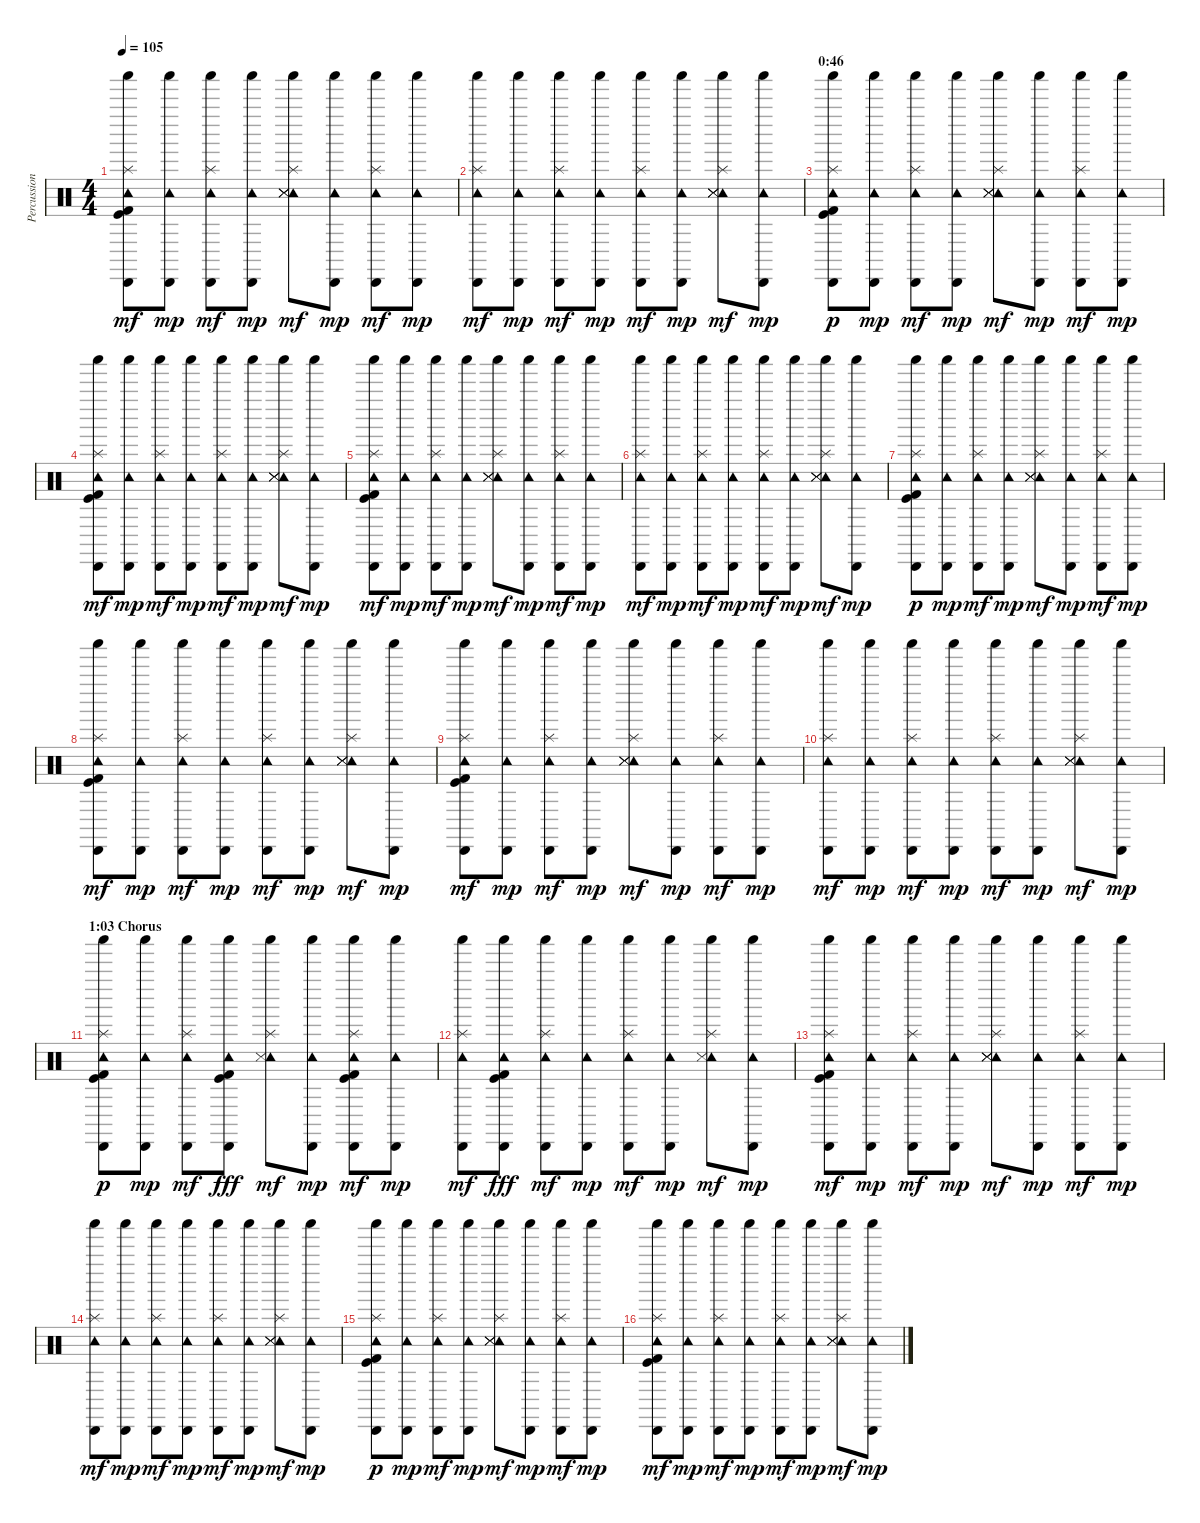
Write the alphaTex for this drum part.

\track ("Percussion (Ian Paice)" "Percussion") {instrument percussion}
\staff {score}
\articulation defaults
\ts (4 4)
\tempo 105
\clef neutral
\ks c
("Shaker (hit)" "Tambourine (hit)" "Cabasa (hit)" "Kick (hit)" "Kick (hit) 2" "Splash (hit)").8{dy mf} ("Shaker (hit)" "Tambourine (hit)" "Cabasa (hit)").8{dy mp} ("Shaker (hit)" "Tambourine (hit)" "Cabasa (hit)" "Splash (hit)").8{dy mf} ("Shaker (hit)" "Tambourine (hit)" "Cabasa (hit)").8{dy mp} ("Shaker (hit)" "Tambourine (hit)" "Snare (side stick) 3" "Snare (side stick) 3" "Snare (side stick) 3" "Splash (hit)").8{dy mf} ("Shaker (hit)" "Tambourine (hit)" "Cabasa (hit)").8{dy mp} ("Shaker (hit)" "Tambourine (hit)" "Cabasa (hit)" "Splash (hit)").8{dy mf} ("Shaker (hit)" "Tambourine (hit)" "Cabasa (hit)").8{dy mp} |
("Shaker (hit)" "Tambourine (hit)" "Cabasa (hit)" "Splash (hit)").8{dy mf} ("Shaker (hit)" "Tambourine (hit)" "Cabasa (hit)").8{dy mp} ("Shaker (hit)" "Tambourine (hit)" "Cabasa (hit)" "Splash (hit)").8{dy mf} ("Shaker (hit)" "Tambourine (hit)" "Cabasa (hit)").8{dy mp} ("Shaker (hit)" "Tambourine (hit)" "Cabasa (hit)" "Splash (hit)").8{dy mf} ("Shaker (hit)" "Tambourine (hit)" "Cabasa (hit)").8{dy mp} ("Shaker (hit)" "Tambourine (hit)" "Snare (side stick) 3" "Snare (side stick) 3" "Snare (side stick) 3" "Splash (hit)").8{dy mf} ("Shaker (hit)" "Tambourine (hit)" "Cabasa (hit)").8{dy mp} |
\section ("" "0:46")
("Shaker (hit)" "Tambourine (hit)" "Cabasa (hit)" "Kick (hit)" "Kick (hit) 2" "Splash (hit)").8{dy p} ("Shaker (hit)" "Tambourine (hit)" "Cabasa (hit)").8{dy mp} ("Shaker (hit)" "Tambourine (hit)" "Cabasa (hit)" "Splash (hit)").8{dy mf} ("Shaker (hit)" "Tambourine (hit)" "Cabasa (hit)").8{dy mp} ("Shaker (hit)" "Tambourine (hit)" "Snare (side stick) 3" "Snare (side stick) 3" "Snare (side stick) 3" "Splash (hit)").8{dy mf} ("Shaker (hit)" "Tambourine (hit)" "Cabasa (hit)").8{dy mp} ("Shaker (hit)" "Tambourine (hit)" "Cabasa (hit)" "Splash (hit)").8{dy mf} ("Shaker (hit)" "Tambourine (hit)" "Cabasa (hit)").8{dy mp} |
("Shaker (hit)" "Tambourine (hit)" "Cabasa (hit)" "Kick (hit)" "Kick (hit) 2" "Splash (hit)").8{dy mf} ("Shaker (hit)" "Tambourine (hit)" "Cabasa (hit)").8{dy mp} ("Shaker (hit)" "Tambourine (hit)" "Cabasa (hit)" "Splash (hit)").8{dy mf} ("Shaker (hit)" "Tambourine (hit)" "Cabasa (hit)").8{dy mp} ("Shaker (hit)" "Tambourine (hit)" "Cabasa (hit)" "Splash (hit)").8{dy mf} ("Shaker (hit)" "Tambourine (hit)" "Cabasa (hit)").8{dy mp} ("Shaker (hit)" "Tambourine (hit)" "Snare (side stick) 3" "Snare (side stick) 3" "Snare (side stick) 3" "Splash (hit)").8{dy mf} ("Shaker (hit)" "Tambourine (hit)" "Cabasa (hit)").8{dy mp} |
("Shaker (hit)" "Tambourine (hit)" "Cabasa (hit)" "Kick (hit)" "Kick (hit) 2" "Splash (hit)").8{dy mf} ("Shaker (hit)" "Tambourine (hit)" "Cabasa (hit)").8{dy mp} ("Shaker (hit)" "Tambourine (hit)" "Cabasa (hit)" "Splash (hit)").8{dy mf} ("Shaker (hit)" "Tambourine (hit)" "Cabasa (hit)").8{dy mp} ("Shaker (hit)" "Tambourine (hit)" "Snare (side stick) 3" "Snare (side stick) 3" "Snare (side stick) 3" "Splash (hit)").8{dy mf} ("Shaker (hit)" "Tambourine (hit)" "Cabasa (hit)").8{dy mp} ("Shaker (hit)" "Tambourine (hit)" "Cabasa (hit)" "Splash (hit)").8{dy mf} ("Shaker (hit)" "Tambourine (hit)" "Cabasa (hit)").8{dy mp} |
("Shaker (hit)" "Tambourine (hit)" "Cabasa (hit)" "Splash (hit)").8{dy mf} ("Shaker (hit)" "Tambourine (hit)" "Cabasa (hit)").8{dy mp} ("Shaker (hit)" "Tambourine (hit)" "Cabasa (hit)" "Splash (hit)").8{dy mf} ("Shaker (hit)" "Tambourine (hit)" "Cabasa (hit)").8{dy mp} ("Shaker (hit)" "Tambourine (hit)" "Cabasa (hit)" "Splash (hit)").8{dy mf} ("Shaker (hit)" "Tambourine (hit)" "Cabasa (hit)").8{dy mp} ("Shaker (hit)" "Tambourine (hit)" "Snare (side stick) 3" "Snare (side stick) 3" "Snare (side stick) 3" "Splash (hit)").8{dy mf} ("Shaker (hit)" "Tambourine (hit)" "Cabasa (hit)").8{dy mp} |
("Shaker (hit)" "Tambourine (hit)" "Cabasa (hit)" "Kick (hit)" "Kick (hit) 2" "Splash (hit)").8{dy p} ("Shaker (hit)" "Tambourine (hit)" "Cabasa (hit)").8{dy mp} ("Shaker (hit)" "Tambourine (hit)" "Cabasa (hit)" "Splash (hit)").8{dy mf} ("Shaker (hit)" "Tambourine (hit)" "Cabasa (hit)").8{dy mp} ("Shaker (hit)" "Tambourine (hit)" "Snare (side stick) 3" "Snare (side stick) 3" "Snare (side stick) 3" "Splash (hit)").8{dy mf} ("Shaker (hit)" "Tambourine (hit)" "Cabasa (hit)").8{dy mp} ("Shaker (hit)" "Tambourine (hit)" "Cabasa (hit)" "Splash (hit)").8{dy mf} ("Shaker (hit)" "Tambourine (hit)" "Cabasa (hit)").8{dy mp} |
("Shaker (hit)" "Tambourine (hit)" "Cabasa (hit)" "Kick (hit)" "Kick (hit) 2" "Splash (hit)").8{dy mf} ("Shaker (hit)" "Tambourine (hit)" "Cabasa (hit)").8{dy mp} ("Shaker (hit)" "Tambourine (hit)" "Cabasa (hit)" "Splash (hit)").8{dy mf} ("Shaker (hit)" "Tambourine (hit)" "Cabasa (hit)").8{dy mp} ("Shaker (hit)" "Tambourine (hit)" "Cabasa (hit)" "Splash (hit)").8{dy mf} ("Shaker (hit)" "Tambourine (hit)" "Cabasa (hit)").8{dy mp} ("Shaker (hit)" "Tambourine (hit)" "Snare (side stick) 3" "Snare (side stick) 3" "Snare (side stick) 3" "Splash (hit)").8{dy mf} ("Shaker (hit)" "Tambourine (hit)" "Cabasa (hit)").8{dy mp} |
("Shaker (hit)" "Tambourine (hit)" "Cabasa (hit)" "Kick (hit)" "Kick (hit) 2" "Splash (hit)").8{dy mf} ("Shaker (hit)" "Tambourine (hit)" "Cabasa (hit)").8{dy mp} ("Shaker (hit)" "Tambourine (hit)" "Cabasa (hit)" "Splash (hit)").8{dy mf} ("Shaker (hit)" "Tambourine (hit)" "Cabasa (hit)").8{dy mp} ("Shaker (hit)" "Tambourine (hit)" "Snare (side stick) 3" "Snare (side stick) 3" "Snare (side stick) 3" "Splash (hit)").8{dy mf} ("Shaker (hit)" "Tambourine (hit)" "Cabasa (hit)").8{dy mp} ("Shaker (hit)" "Tambourine (hit)" "Cabasa (hit)" "Splash (hit)").8{dy mf} ("Shaker (hit)" "Tambourine (hit)" "Cabasa (hit)").8{dy mp} |
("Shaker (hit)" "Tambourine (hit)" "Cabasa (hit)" "Splash (hit)").8{dy mf} ("Shaker (hit)" "Tambourine (hit)" "Cabasa (hit)").8{dy mp} ("Shaker (hit)" "Tambourine (hit)" "Cabasa (hit)" "Splash (hit)").8{dy mf} ("Shaker (hit)" "Tambourine (hit)" "Cabasa (hit)").8{dy mp} ("Shaker (hit)" "Tambourine (hit)" "Cabasa (hit)" "Splash (hit)").8{dy mf} ("Shaker (hit)" "Tambourine (hit)" "Cabasa (hit)").8{dy mp} ("Shaker (hit)" "Tambourine (hit)" "Snare (side stick) 3" "Snare (side stick) 3" "Snare (side stick) 3" "Splash (hit)").8{dy mf} ("Shaker (hit)" "Tambourine (hit)" "Cabasa (hit)").8{dy mp} |
\section ("" "1:03 Chorus")
("Shaker (hit)" "Tambourine (hit)" "Cabasa (hit)" "Kick (hit)" "Kick (hit) 2" "Splash (hit)").8{dy p} ("Shaker (hit)" "Tambourine (hit)" "Cabasa (hit)").8{dy mp} ("Shaker (hit)" "Tambourine (hit)" "Cabasa (hit)" "Splash (hit)").8{dy mf} ("Shaker (hit)" "Tambourine (hit)" "Cabasa (hit)" "Kick (hit)" "Kick (hit) 2").8{dy fff} ("Shaker (hit)" "Tambourine (hit)" "Snare (side stick) 3" "Splash (hit)").8{dy mf} ("Shaker (hit)" "Tambourine (hit)" "Cabasa (hit)").8{dy mp} ("Shaker (hit)" "Tambourine (hit)" "Cabasa (hit)" "Kick (hit)" "Kick (hit) 2" "Splash (hit)").8{dy mf} ("Shaker (hit)" "Tambourine (hit)" "Cabasa (hit)").8{dy mp} |
("Shaker (hit)" "Tambourine (hit)" "Cabasa (hit)" "Splash (hit)").8{dy mf} ("Shaker (hit)" "Tambourine (hit)" "Cabasa (hit)" "Kick (hit) 2" "Kick (hit)").8{dy fff} ("Shaker (hit)" "Tambourine (hit)" "Cabasa (hit)" "Splash (hit)").8{dy mf} ("Shaker (hit)" "Tambourine (hit)" "Cabasa (hit)").8{dy mp} ("Shaker (hit)" "Tambourine (hit)" "Cabasa (hit)" "Splash (hit)").8{dy mf} ("Shaker (hit)" "Tambourine (hit)" "Cabasa (hit)").8{dy mp} ("Shaker (hit)" "Tambourine (hit)" "Snare (side stick) 3" "Splash (hit)").8{dy mf} ("Shaker (hit)" "Tambourine (hit)" "Cabasa (hit)").8{dy mp} |
("Shaker (hit)" "Tambourine (hit)" "Cabasa (hit)" "Kick (hit)" "Kick (hit) 2" "Splash (hit)").8{dy mf} ("Shaker (hit)" "Tambourine (hit)" "Cabasa (hit)").8{dy mp} ("Shaker (hit)" "Tambourine (hit)" "Cabasa (hit)" "Splash (hit)").8{dy mf} ("Shaker (hit)" "Tambourine (hit)" "Cabasa (hit)").8{dy mp} ("Shaker (hit)" "Tambourine (hit)" "Snare (side stick) 3" "Snare (side stick) 3" "Snare (side stick) 3" "Splash (hit)").8{dy mf} ("Shaker (hit)" "Tambourine (hit)" "Cabasa (hit)").8{dy mp} ("Shaker (hit)" "Tambourine (hit)" "Cabasa (hit)" "Splash (hit)").8{dy mf} ("Shaker (hit)" "Tambourine (hit)" "Cabasa (hit)").8{dy mp} |
("Shaker (hit)" "Tambourine (hit)" "Cabasa (hit)" "Splash (hit)").8{dy mf} ("Shaker (hit)" "Tambourine (hit)" "Cabasa (hit)").8{dy mp} ("Shaker (hit)" "Tambourine (hit)" "Cabasa (hit)" "Splash (hit)").8{dy mf} ("Shaker (hit)" "Tambourine (hit)" "Cabasa (hit)").8{dy mp} ("Shaker (hit)" "Tambourine (hit)" "Cabasa (hit)" "Splash (hit)").8{dy mf} ("Shaker (hit)" "Tambourine (hit)" "Cabasa (hit)").8{dy mp} ("Shaker (hit)" "Tambourine (hit)" "Snare (side stick) 3" "Snare (side stick) 3" "Snare (side stick) 3" "Splash (hit)").8{dy mf} ("Shaker (hit)" "Tambourine (hit)" "Cabasa (hit)").8{dy mp} |
("Shaker (hit)" "Tambourine (hit)" "Cabasa (hit)" "Kick (hit)" "Kick (hit) 2" "Splash (hit)").8{dy p} ("Shaker (hit)" "Tambourine (hit)" "Cabasa (hit)").8{dy mp} ("Shaker (hit)" "Tambourine (hit)" "Cabasa (hit)" "Splash (hit)").8{dy mf} ("Shaker (hit)" "Tambourine (hit)" "Cabasa (hit)").8{dy mp} ("Shaker (hit)" "Tambourine (hit)" "Snare (side stick) 3" "Snare (side stick) 3" "Snare (side stick) 3" "Splash (hit)").8{dy mf} ("Shaker (hit)" "Tambourine (hit)" "Cabasa (hit)").8{dy mp} ("Shaker (hit)" "Tambourine (hit)" "Cabasa (hit)" "Splash (hit)").8{dy mf} ("Shaker (hit)" "Tambourine (hit)" "Cabasa (hit)").8{dy mp} |
("Shaker (hit)" "Tambourine (hit)" "Cabasa (hit)" "Kick (hit)" "Kick (hit) 2" "Splash (hit)").8{dy mf} ("Shaker (hit)" "Tambourine (hit)" "Cabasa (hit)").8{dy mp} ("Shaker (hit)" "Tambourine (hit)" "Cabasa (hit)" "Splash (hit)").8{dy mf} ("Shaker (hit)" "Tambourine (hit)" "Cabasa (hit)").8{dy mp} ("Shaker (hit)" "Tambourine (hit)" "Cabasa (hit)" "Splash (hit)").8{dy mf} ("Shaker (hit)" "Tambourine (hit)" "Cabasa (hit)").8{dy mp} ("Shaker (hit)" "Tambourine (hit)" "Snare (side stick) 3" "Snare (side stick) 3" "Snare (side stick) 3" "Splash (hit)").8{dy mf} ("Shaker (hit)" "Tambourine (hit)" "Cabasa (hit)").8{dy mp}
